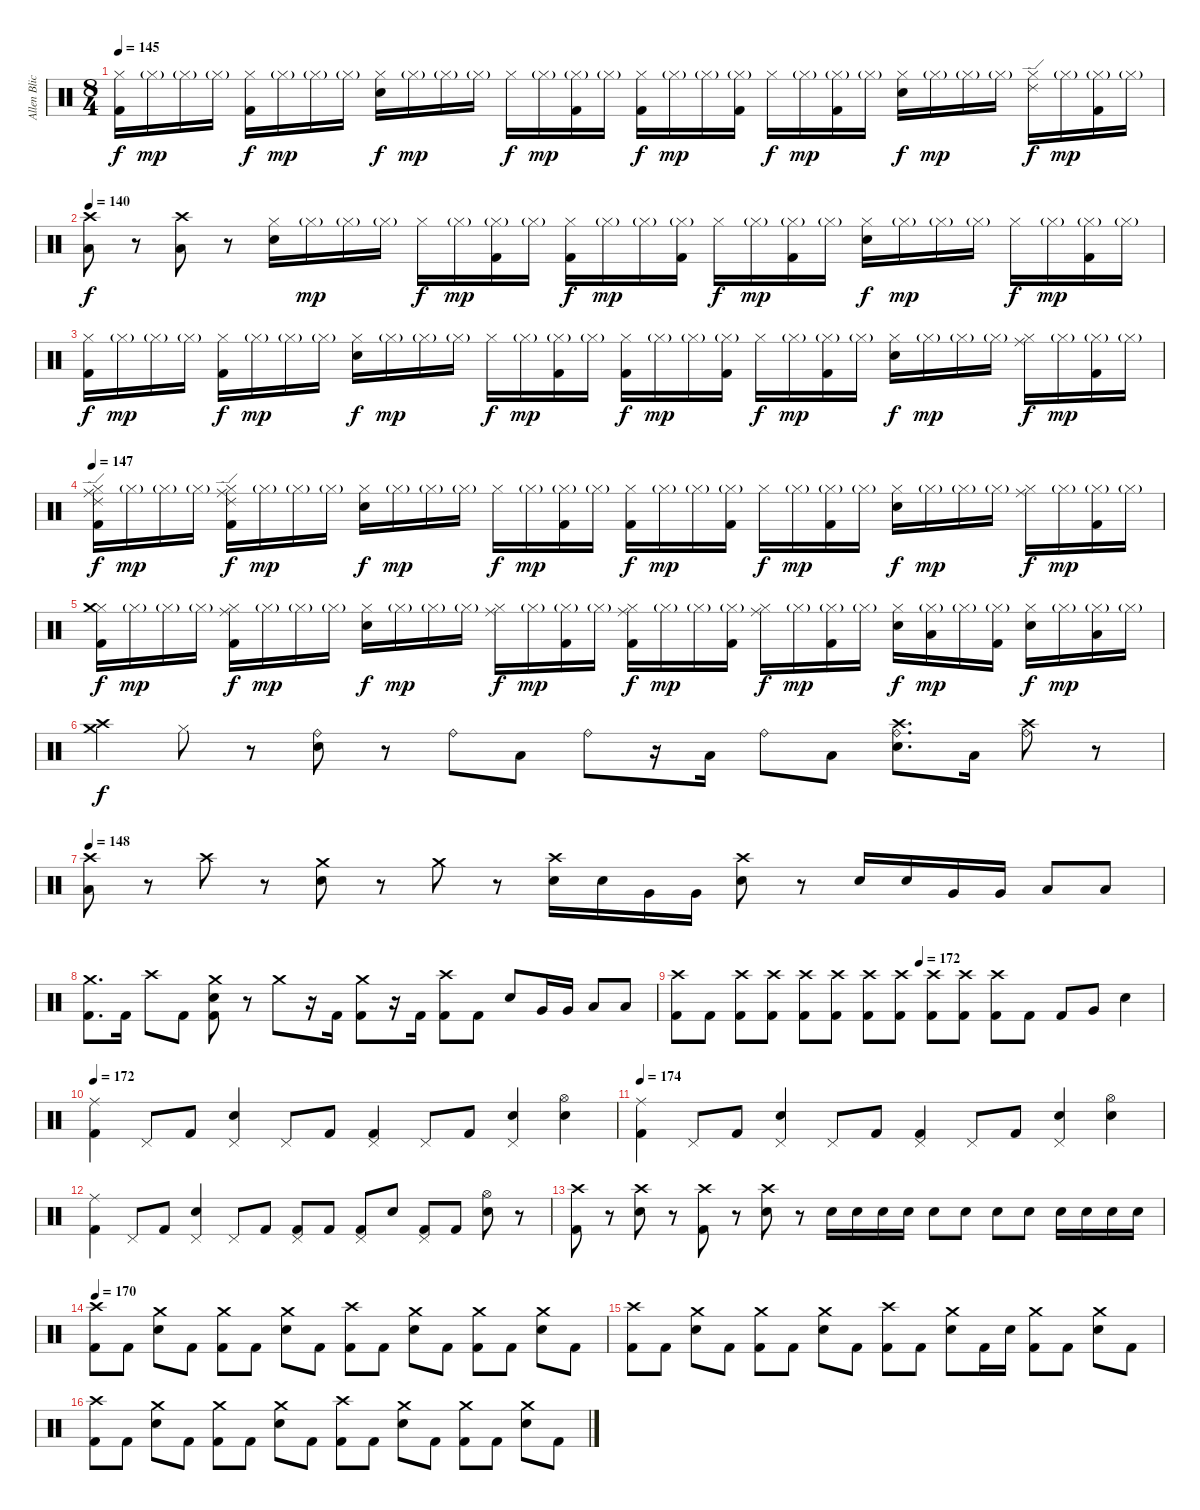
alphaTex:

\track ("Allen Blickle" "Allen Blic") {instrument percussion}
\staff {score}
\articulation defaults
\ts (8 4)
\tempo 145
\clef neutral
\ks c
("Hi-Hat (closed)" "Kick (hit) 2").16{dy f} "Hi-Hat (closed)"{g}.16{dy mp} "Hi-Hat (closed)"{g}.16 "Hi-Hat (closed)"{g}.16 ("Hi-Hat (closed)" "Kick (hit) 2").16{dy f} "Hi-Hat (closed)"{g}.16{dy mp} "Hi-Hat (closed)"{g}.16 "Hi-Hat (closed)"{g}.16 ("Hi-Hat (closed)" "Electric Snare (hit)").16{dy f} "Hi-Hat (closed)"{g}.16{dy mp} "Hi-Hat (closed)"{g}.16 "Hi-Hat (closed)"{g}.16 "Hi-Hat (closed)".16{dy f} "Hi-Hat (closed)"{g}.16{dy mp} ("Hi-Hat (closed)"{g} "Kick (hit) 2").16 "Hi-Hat (closed)"{g}.16 ("Hi-Hat (closed)" "Kick (hit) 2").16{dy f} "Hi-Hat (closed)"{g}.16{dy mp} "Hi-Hat (closed)"{g}.16 ("Hi-Hat (closed)"{g} "Kick (hit) 2").16 "Hi-Hat (closed)".16{dy f} "Hi-Hat (closed)"{g}.16{dy mp} ("Hi-Hat (closed)"{g} "Kick (hit) 2").16 "Hi-Hat (closed)"{g}.16 ("Hi-Hat (closed)" "Electric Snare (hit)").16{dy f} "Hi-Hat (closed)"{g}.16{dy mp} "Hi-Hat (closed)"{g}.16 "Hi-Hat (closed)"{g}.16 ("Hi-Hat (closed)" "Ride (edge) 2").16{dy f} "Hi-Hat (closed)"{g}.16{dy mp} ("Hi-Hat (closed)"{g} "Kick (hit) 2").16 "Hi-Hat (closed)"{g}.16 |
\tempo 140
("Crash high (hit)" "Low Floor Tom (hit)").8{dy f} r.8 ("Crash high (hit)" "Low Floor Tom (hit)").8 r.8 ("Hi-Hat (closed)" "Electric Snare (hit)").16 "Hi-Hat (closed)"{g}.16{dy mp} "Hi-Hat (closed)"{g}.16 "Hi-Hat (closed)"{g}.16 "Hi-Hat (closed)".16{dy f} "Hi-Hat (closed)"{g}.16{dy mp} ("Hi-Hat (closed)"{g} "Kick (hit) 2").16 "Hi-Hat (closed)"{g}.16 ("Hi-Hat (closed)" "Kick (hit) 2").16{dy f} "Hi-Hat (closed)"{g}.16{dy mp} "Hi-Hat (closed)"{g}.16 ("Hi-Hat (closed)"{g} "Kick (hit) 2").16 "Hi-Hat (closed)".16{dy f} "Hi-Hat (closed)"{g}.16{dy mp} ("Hi-Hat (closed)"{g} "Kick (hit) 2").16 "Hi-Hat (closed)"{g}.16 ("Hi-Hat (closed)" "Electric Snare (hit)").16{dy f} "Hi-Hat (closed)"{g}.16{dy mp} "Hi-Hat (closed)"{g}.16 "Hi-Hat (closed)"{g}.16 "Hi-Hat (closed)".16{dy f} "Hi-Hat (closed)"{g}.16{dy mp} ("Hi-Hat (closed)"{g} "Kick (hit) 2").16 "Hi-Hat (closed)"{g}.16 |
("Hi-Hat (closed)" "Kick (hit) 2").16{dy f} "Hi-Hat (closed)"{g}.16{dy mp} "Hi-Hat (closed)"{g}.16 "Hi-Hat (closed)"{g}.16 ("Hi-Hat (closed)" "Kick (hit) 2").16{dy f} "Hi-Hat (closed)"{g}.16{dy mp} "Hi-Hat (closed)"{g}.16 "Hi-Hat (closed)"{g}.16 ("Hi-Hat (closed)" "Electric Snare (hit)").16{dy f} "Hi-Hat (closed)"{g}.16{dy mp} "Hi-Hat (closed)"{g}.16 "Hi-Hat (closed)"{g}.16 "Hi-Hat (closed)".16{dy f} "Hi-Hat (closed)"{g}.16{dy mp} ("Hi-Hat (closed)"{g} "Kick (hit) 2").16 "Hi-Hat (closed)"{g}.16 ("Hi-Hat (closed)" "Kick (hit) 2").16{dy f} "Hi-Hat (closed)"{g}.16{dy mp} "Hi-Hat (closed)"{g}.16 ("Hi-Hat (closed)"{g} "Kick (hit) 2").16 "Hi-Hat (closed)".16{dy f} "Hi-Hat (closed)"{g}.16{dy mp} ("Hi-Hat (closed)"{g} "Kick (hit) 2").16 "Hi-Hat (closed)"{g}.16 ("Hi-Hat (closed)" "Electric Snare (hit)").16{dy f} "Hi-Hat (closed)"{g}.16{dy mp} "Hi-Hat (closed)"{g}.16 "Hi-Hat (closed)"{g}.16 ("Hi-Hat (closed)" "Ride (middle)").16{dy f} "Hi-Hat (closed)"{g}.16{dy mp} ("Hi-Hat (closed)"{g} "Kick (hit) 2").16 "Hi-Hat (closed)"{g}.16 |
\tempo 147
("Hi-Hat (closed)" "Kick (hit) 2" "Ride (middle)" "Ride (edge) 2").16{dy f} "Hi-Hat (closed)"{g}.16{dy mp} "Hi-Hat (closed)"{g}.16 "Hi-Hat (closed)"{g}.16 ("Hi-Hat (closed)" "Kick (hit) 2" "Ride (middle)" "Ride (edge) 2").16{dy f} "Hi-Hat (closed)"{g}.16{dy mp} "Hi-Hat (closed)"{g}.16 "Hi-Hat (closed)"{g}.16 ("Hi-Hat (closed)" "Electric Snare (hit)").16{dy f} "Hi-Hat (closed)"{g}.16{dy mp} "Hi-Hat (closed)"{g}.16 "Hi-Hat (closed)"{g}.16 "Hi-Hat (closed)".16{dy f} "Hi-Hat (closed)"{g}.16{dy mp} ("Hi-Hat (closed)"{g} "Kick (hit) 2").16 "Hi-Hat (closed)"{g}.16 ("Hi-Hat (closed)" "Kick (hit) 2").16{dy f} "Hi-Hat (closed)"{g}.16{dy mp} "Hi-Hat (closed)"{g}.16 ("Hi-Hat (closed)"{g} "Kick (hit) 2").16 "Hi-Hat (closed)".16{dy f} "Hi-Hat (closed)"{g}.16{dy mp} ("Hi-Hat (closed)"{g} "Kick (hit) 2").16 "Hi-Hat (closed)"{g}.16 ("Hi-Hat (closed)" "Electric Snare (hit)").16{dy f} "Hi-Hat (closed)"{g}.16{dy mp} "Hi-Hat (closed)"{g}.16 "Hi-Hat (closed)"{g}.16 ("Hi-Hat (closed)" "Ride (middle)").16{dy f} "Hi-Hat (closed)"{g}.16{dy mp} ("Hi-Hat (closed)"{g} "Kick (hit) 2").16 "Hi-Hat (closed)"{g}.16 |
("Hi-Hat (closed)" "Kick (hit) 2" "Crash medium (hit)").16{dy f} "Hi-Hat (closed)"{g}.16{dy mp} "Hi-Hat (closed)"{g}.16 "Hi-Hat (closed)"{g}.16 ("Hi-Hat (closed)" "Kick (hit) 2" "Ride (middle)").16{dy f} "Hi-Hat (closed)"{g}.16{dy mp} "Hi-Hat (closed)"{g}.16 "Hi-Hat (closed)"{g}.16 ("Hi-Hat (closed)" "Electric Snare (hit)").16{dy f} "Hi-Hat (closed)"{g}.16{dy mp} "Hi-Hat (closed)"{g}.16 "Hi-Hat (closed)"{g}.16 ("Hi-Hat (closed)" "Ride (middle)").16{dy f} "Hi-Hat (closed)"{g}.16{dy mp} ("Hi-Hat (closed)"{g} "Kick (hit) 2").16 "Hi-Hat (closed)"{g}.16 ("Hi-Hat (closed)" "Kick (hit) 2" "Ride (middle)").16{dy f} "Hi-Hat (closed)"{g}.16{dy mp} "Hi-Hat (closed)"{g}.16 ("Hi-Hat (closed)"{g} "Kick (hit) 2").16 ("Hi-Hat (closed)" "Ride (middle)").16{dy f} "Hi-Hat (closed)"{g}.16{dy mp} ("Hi-Hat (closed)"{g} "Kick (hit) 2").16 "Hi-Hat (closed)"{g}.16 ("Hi-Hat (closed)" "Electric Snare (hit)").16{dy f} ("Hi-Hat (closed)"{g} "Low Tom (hit)").16{dy mp} "Hi-Hat (closed)"{g}.16 ("Hi-Hat (closed)"{g} "Kick (hit) 2").16 ("Hi-Hat (closed)" "Electric Snare (hit)").16{dy f} "Hi-Hat (closed)"{g}.16{dy mp} ("Hi-Hat (closed)"{g} "Low Tom (hit)").16 "Hi-Hat (closed)"{g}.16 |
("Crash medium (hit)" "Crash high (hit)").4{dy f} "Hi-Hat (closed)".8 r.8 ("Ride (bell)" "Electric Snare (hit)").8 r.8 "Ride (bell)".8 "Low Floor Tom (hit)".8 "Ride (bell)".8 r.16 "Low Floor Tom (hit)".16 "Ride (bell)".8 "Low Floor Tom (hit)".8 ("Ride (bell)" "Electric Snare (hit)" "Crash high (hit)").8{d} "Low Floor Tom (hit)".16 ("Ride (bell)" "Crash high (hit)").8 r.8 |
\tempo 148
("Low Floor Tom (hit)" "Crash high (hit)").8 r.8 "Crash high (hit)".8 r.8 ("Electric Snare (hit)" "Crash medium (hit)").8 r.8 "Crash medium (hit)".8 r.8 ("Electric Snare (hit)" "Crash high (hit)").16 "Electric Snare (hit)".16 "Very Low Tom (hit)".16 "Very Low Tom (hit)".16 ("Electric Snare (hit)" "Crash high (hit)").8 r.8 "Electric Snare (hit)".16 "Electric Snare (hit)".16 "Very Low Tom (hit)".16 "Very Low Tom (hit)".16 "Low Floor Tom (hit)".8 "Low Floor Tom (hit)".8 |
("Crash medium (hit)" "Kick (hit) 2").8{d} "Kick (hit) 2".16 "Crash high (hit)".8 "Kick (hit) 2".8 ("Crash medium (hit)" "Kick (hit) 2" "Electric Snare (hit)").8 r.8 "Crash medium (hit)".8 r.16 "Kick (hit) 2".16 ("Crash medium (hit)" "Kick (hit) 2").8 r.16 "Kick (hit) 2".16 ("Crash high (hit)" "Kick (hit) 2").8 "Kick (hit) 2".8 "Electric Snare (hit)".8 "Very Low Tom (hit)".16 "Very Low Tom (hit)".16 "Low Floor Tom (hit)".8 "Low Floor Tom (hit)".8 |
\tempo (172 0.5)
("Crash high (hit)" "Kick (hit) 2").8 "Kick (hit) 2".8 ("Crash high (hit)" "Kick (hit) 2").8 ("Crash high (hit)" "Kick (hit) 2").8 ("Crash high (hit)" "Kick (hit) 2").8 ("Crash high (hit)" "Kick (hit) 2").8 ("Crash high (hit)" "Kick (hit) 2").8 ("Crash high (hit)" "Kick (hit) 2").8 ("Crash high (hit)" "Kick (hit) 2").8 ("Crash high (hit)" "Kick (hit) 2").8 ("Crash high (hit)" "Kick (hit) 2").8 "Kick (hit) 2".8 "Kick (hit) 2".8 "Very Low Tom (hit)".8 "Electric Snare (hit)".4 |
\tempo 172
("Ride (middle)" "Kick (hit) 2").4 "Pedal Hi-Hat (hit)".8 "Kick (hit) 2".8 ("Pedal Hi-Hat (hit)" "Electric Snare (hit)").4 "Pedal Hi-Hat (hit)".8 "Kick (hit) 2".8 ("Pedal Hi-Hat (hit)" "Kick (hit) 2").4 "Pedal Hi-Hat (hit)".8 "Kick (hit) 2".8 ("Pedal Hi-Hat (hit)" "Electric Snare (hit)").4 ("Hi-Hat (open)" "Electric Snare (hit)").4 |
\tempo 174
("Ride (middle)" "Kick (hit) 2").4 "Pedal Hi-Hat (hit)".8 "Kick (hit) 2".8 ("Pedal Hi-Hat (hit)" "Electric Snare (hit)").4 "Pedal Hi-Hat (hit)".8 "Kick (hit) 2".8 ("Pedal Hi-Hat (hit)" "Kick (hit) 2").4 "Pedal Hi-Hat (hit)".8 "Kick (hit) 2".8 ("Pedal Hi-Hat (hit)" "Electric Snare (hit)").4 ("Hi-Hat (open)" "Electric Snare (hit)").4 |
("Ride (middle)" "Kick (hit) 2").4 "Pedal Hi-Hat (hit)".8 "Kick (hit) 2".8 ("Pedal Hi-Hat (hit)" "Electric Snare (hit)").4 "Pedal Hi-Hat (hit)".8 "Kick (hit) 2".8 ("Pedal Hi-Hat (hit)" "Kick (hit) 2").8 "Kick (hit) 2".8 ("Pedal Hi-Hat (hit)" "Kick (hit) 2").8 "Electric Snare (hit)".8 ("Pedal Hi-Hat (hit)" "Kick (hit) 2").8 "Kick (hit) 2".8 ("Hi-Hat (open)" "Electric Snare (hit)").8 r.8 |
("Crash high (hit)" "Kick (hit) 2").8 r.8 ("Crash high (hit)" "Electric Snare (hit)").8 r.8 ("Crash high (hit)" "Kick (hit) 2").8 r.8 ("Crash high (hit)" "Electric Snare (hit)").8 r.8 "Electric Snare (hit)".16 "Electric Snare (hit)".16 "Electric Snare (hit)".16 "Electric Snare (hit)".16 "Electric Snare (hit)".8 "Electric Snare (hit)".8 "Electric Snare (hit)".8 "Electric Snare (hit)".8 "Electric Snare (hit)".16 "Electric Snare (hit)".16 "Electric Snare (hit)".16 "Electric Snare (hit)".16 |
\tempo 170
("Crash high (hit)" "Kick (hit) 2").8 "Kick (hit) 2".8 ("Crash medium (hit)" "Electric Snare (hit)").8 "Kick (hit) 2".8 ("Crash medium (hit)" "Kick (hit) 2").8 "Kick (hit) 2".8 ("Crash medium (hit)" "Electric Snare (hit)").8 "Kick (hit) 2".8 ("Crash high (hit)" "Kick (hit) 2").8 "Kick (hit) 2".8 ("Crash medium (hit)" "Electric Snare (hit)").8 "Kick (hit) 2".8 ("Crash medium (hit)" "Kick (hit) 2").8 "Kick (hit) 2".8 ("Crash medium (hit)" "Electric Snare (hit)").8 "Kick (hit) 2".8 |
("Crash high (hit)" "Kick (hit) 2").8 "Kick (hit) 2".8 ("Crash medium (hit)" "Electric Snare (hit)").8 "Kick (hit) 2".8 ("Crash medium (hit)" "Kick (hit) 2").8 "Kick (hit) 2".8 ("Crash medium (hit)" "Electric Snare (hit)").8 "Kick (hit) 2".8 ("Crash high (hit)" "Kick (hit) 2").8 "Kick (hit) 2".8 ("Crash medium (hit)" "Electric Snare (hit)").8 "Kick (hit) 2".16 "Electric Snare (hit)".16 ("Crash medium (hit)" "Kick (hit) 2").8 "Kick (hit) 2".8 ("Crash medium (hit)" "Electric Snare (hit)").8 "Kick (hit) 2".8 |
("Crash high (hit)" "Kick (hit) 2").8 "Kick (hit) 2".8 ("Crash medium (hit)" "Electric Snare (hit)").8 "Kick (hit) 2".8 ("Crash medium (hit)" "Kick (hit) 2").8 "Kick (hit) 2".8 ("Crash medium (hit)" "Electric Snare (hit)").8 "Kick (hit) 2".8 ("Crash high (hit)" "Kick (hit) 2").8 "Kick (hit) 2".8 ("Crash medium (hit)" "Electric Snare (hit)").8 "Kick (hit) 2".8 ("Crash medium (hit)" "Kick (hit) 2").8 "Kick (hit) 2".8 ("Crash medium (hit)" "Electric Snare (hit)").8 "Kick (hit) 2".8
